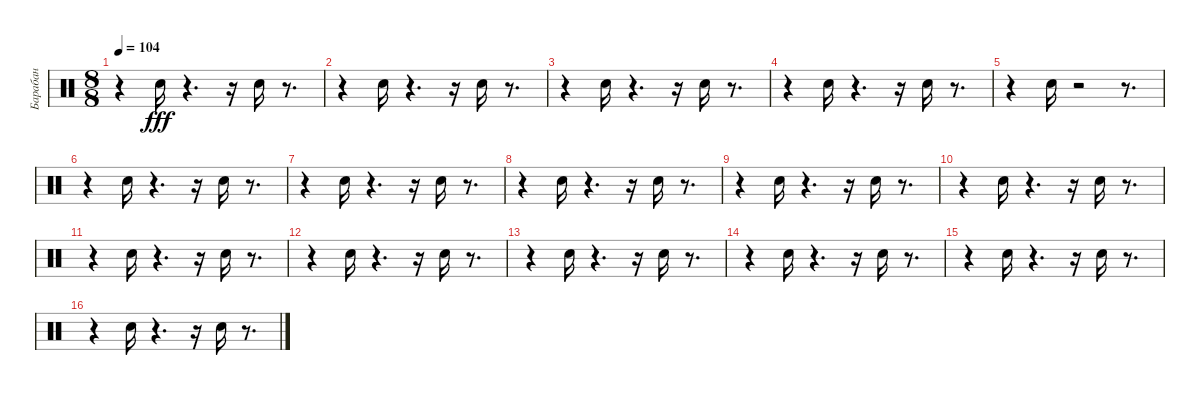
\track ("Барабан" "Барабан") {instrument percussion}
\staff {score}
\articulation defaults
\ts (8 8)
\tempo 104
\clef neutral
\ks c
r.4{dy fff} "Snare (hit) 2".16 r.4{d} r.16 "Snare (hit) 2".16 r.8{d} |
r.4 "Snare (hit) 2".16 r.4{d} r.16 "Snare (hit) 2".16 r.8{d} |
r.4 "Snare (hit) 2".16 r.4{d} r.16 "Snare (hit) 2".16 r.8{d} |
r.4 "Snare (hit) 2".16 r.4{d} r.16 "Snare (hit) 2".16 r.8{d} |
r.4 "Snare (hit) 2".16 r.2 r.8{d} |
r.4 "Snare (hit) 2".16 r.4{d} r.16 "Snare (hit) 2".16 r.8{d} |
r.4 "Snare (hit) 2".16 r.4{d} r.16 "Snare (hit) 2".16 r.8{d} |
r.4 "Snare (hit) 2".16 r.4{d} r.16 "Snare (hit) 2".16 r.8{d} |
r.4 "Snare (hit) 2".16 r.4{d} r.16 "Snare (hit) 2".16 r.8{d} |
r.4 "Snare (hit) 2".16 r.4{d} r.16 "Snare (hit) 2".16 r.8{d} |
r.4 "Snare (hit) 2".16 r.4{d} r.16 "Snare (hit) 2".16 r.8{d} |
r.4 "Snare (hit) 2".16 r.4{d} r.16 "Snare (hit) 2".16 r.8{d} |
r.4 "Snare (hit) 2".16 r.4{d} r.16 "Snare (hit) 2".16 r.8{d} |
r.4 "Snare (hit) 2".16 r.4{d} r.16 "Snare (hit) 2".16 r.8{d} |
r.4 "Snare (hit) 2".16 r.4{d} r.16 "Snare (hit) 2".16 r.8{d} |
r.4 "Snare (hit) 2".16 r.4{d} r.16 "Snare (hit) 2".16 r.8{d}
